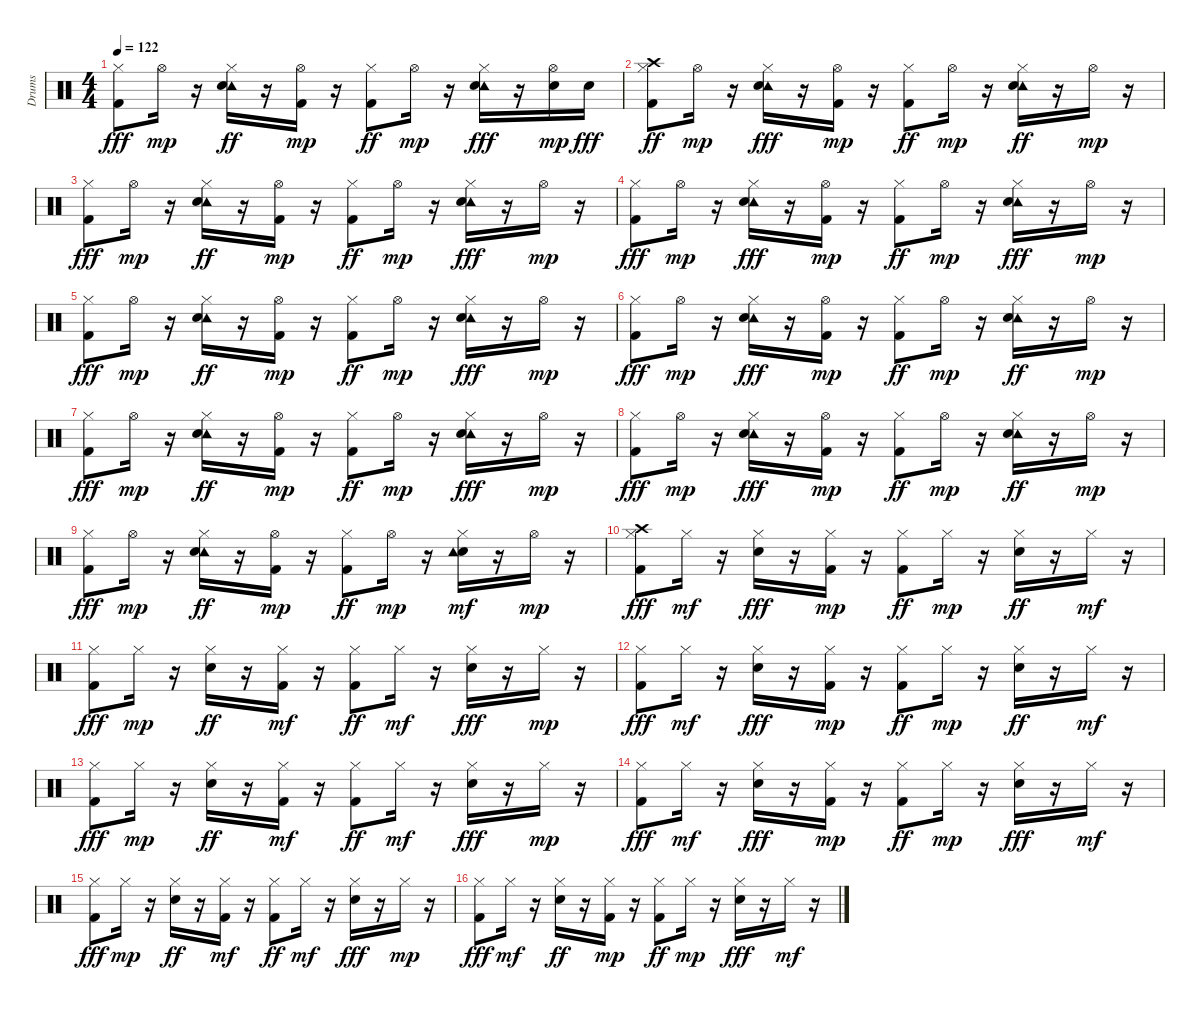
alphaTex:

\track ("Drums" "Drums") {instrument percussion}
\staff {score}
\articulation defaults
\ts (4 4)
\tempo 122
\clef neutral
\ks c
("Kick (hit) 2" "Hi-Hat (closed)").8{dy fff} "Hi-Hat (open)".16{dy mp} r.16 ("Tambourine (hit)" "Snare (hit) 2" "Hi-Hat (closed)").16{dy ff} r.16 ("Kick (hit) 2" "Hi-Hat (open)").16{dy mp} r.16 ("Kick (hit) 2" "Hi-Hat (closed)").8{dy ff} "Hi-Hat (open)".16{dy mp} r.16 ("Tambourine (hit)" "Snare (hit) 2" "Hi-Hat (closed)").16{dy fff} r.16 ("Snare (hit) 2" "Hi-Hat (open)").16{dy mp} "Snare (hit) 2".16{dy fff} |
("Hi-Hat (closed)" "Kick (hit) 2" "Crash high (hit)").8{dy ff} "Hi-Hat (open)".16{dy mp} r.16 ("Tambourine (hit)" "Hi-Hat (closed)" "Snare (hit) 2").16{dy fff} r.16 ("Kick (hit) 2" "Hi-Hat (open)").16{dy mp} r.16 ("Kick (hit) 2" "Hi-Hat (closed)").8{dy ff} "Hi-Hat (open)".16{dy mp} r.16 ("Tambourine (hit)" "Snare (hit) 2" "Hi-Hat (closed)").16{dy ff} r.16 "Hi-Hat (open)".16{dy mp} r.16 |
("Kick (hit) 2" "Hi-Hat (closed)").8{dy fff} "Hi-Hat (open)".16{dy mp} r.16 ("Tambourine (hit)" "Snare (hit) 2" "Hi-Hat (closed)").16{dy ff} r.16 ("Kick (hit) 2" "Hi-Hat (open)").16{dy mp} r.16 ("Kick (hit) 2" "Hi-Hat (closed)").8{dy ff} "Hi-Hat (open)".16{dy mp} r.16 ("Tambourine (hit)" "Snare (hit) 2" "Hi-Hat (closed)").16{dy fff} r.16 "Hi-Hat (open)".16{dy mp} r.16 |
("Kick (hit) 2" "Hi-Hat (closed)").8{dy fff} "Hi-Hat (open)".16{dy mp} r.16 ("Tambourine (hit)" "Hi-Hat (closed)" "Snare (hit) 2").16{dy fff} r.16 ("Kick (hit) 2" "Hi-Hat (open)").16{dy mp} r.16 ("Kick (hit) 2" "Hi-Hat (closed)").8{dy ff} "Hi-Hat (open)".16{dy mp} r.16 ("Tambourine (hit)" "Hi-Hat (closed)" "Snare (hit) 2").16{dy fff} r.16 "Hi-Hat (open)".16{dy mp} r.16 |
("Kick (hit) 2" "Hi-Hat (closed)").8{dy fff} "Hi-Hat (open)".16{dy mp} r.16 ("Tambourine (hit)" "Snare (hit) 2" "Hi-Hat (closed)").16{dy ff} r.16 ("Kick (hit) 2" "Hi-Hat (open)").16{dy mp} r.16 ("Kick (hit) 2" "Hi-Hat (closed)").8{dy ff} "Hi-Hat (open)".16{dy mp} r.16 ("Tambourine (hit)" "Snare (hit) 2" "Hi-Hat (closed)").16{dy fff} r.16 "Hi-Hat (open)".16{dy mp} r.16 |
("Kick (hit) 2" "Hi-Hat (closed)").8{dy fff} "Hi-Hat (open)".16{dy mp} r.16 ("Tambourine (hit)" "Hi-Hat (closed)" "Snare (hit) 2").16{dy fff} r.16 ("Kick (hit) 2" "Hi-Hat (open)").16{dy mp} r.16 ("Kick (hit) 2" "Hi-Hat (closed)").8{dy ff} "Hi-Hat (open)".16{dy mp} r.16 ("Tambourine (hit)" "Snare (hit) 2" "Hi-Hat (closed)").16{dy ff} r.16 "Hi-Hat (open)".16{dy mp} r.16 |
("Kick (hit) 2" "Hi-Hat (closed)").8{dy fff} "Hi-Hat (open)".16{dy mp} r.16 ("Tambourine (hit)" "Snare (hit) 2" "Hi-Hat (closed)").16{dy ff} r.16 ("Kick (hit) 2" "Hi-Hat (open)").16{dy mp} r.16 ("Kick (hit) 2" "Hi-Hat (closed)").8{dy ff} "Hi-Hat (open)".16{dy mp} r.16 ("Tambourine (hit)" "Snare (hit) 2" "Hi-Hat (closed)").16{dy fff} r.16 "Hi-Hat (open)".16{dy mp} r.16 |
("Hi-Hat (closed)" "Kick (hit) 2").8{dy fff} "Hi-Hat (open)".16{dy mp} r.16 ("Tambourine (hit)" "Hi-Hat (closed)" "Snare (hit) 2").16{dy fff} r.16 ("Kick (hit) 2" "Hi-Hat (open)").16{dy mp} r.16 ("Kick (hit) 2" "Hi-Hat (closed)").8{dy ff} "Hi-Hat (open)".16{dy mp} r.16 ("Tambourine (hit)" "Snare (hit) 2" "Hi-Hat (closed)").16{dy ff} r.16 "Hi-Hat (open)".16{dy mp} r.16 |
("Kick (hit) 2" "Hi-Hat (closed)").8{dy fff} "Hi-Hat (open)".16{dy mp} r.16 ("Tambourine (hit)" "Snare (hit) 2" "Hi-Hat (closed)").16{dy ff} r.16 ("Kick (hit) 2" "Hi-Hat (open)").16{dy mp} r.16 ("Kick (hit) 2" "Hi-Hat (closed)").8{dy ff} "Hi-Hat (open)".16{dy mp} r.16 ("Hi-Hat (closed)" "Snare (hit) 2" "Tambourine (hit)").16{dy mf} r.16 "Hi-Hat (open)".16{dy mp} r.16 |
("Crash high (hit)" "Hi-Hat (closed)" "Kick (hit) 2").8{dy fff} "Hi-Hat (closed)".16{dy mf} r.16 ("Hi-Hat (closed)" "Snare (hit) 2").16{dy fff} r.16 ("Kick (hit) 2" "Hi-Hat (closed)").16{dy mp} r.16 ("Kick (hit) 2" "Hi-Hat (closed)").8{dy ff} "Hi-Hat (closed)".16{dy mp} r.16 ("Snare (hit) 2" "Hi-Hat (closed)").16{dy ff} r.16 "Hi-Hat (closed)".16{dy mf} r.16 |
("Kick (hit) 2" "Hi-Hat (closed)").8{dy fff} "Hi-Hat (closed)".16{dy mp} r.16 ("Snare (hit) 2" "Hi-Hat (closed)").16{dy ff} r.16 ("Kick (hit) 2" "Hi-Hat (closed)").16{dy mf} r.16 ("Kick (hit) 2" "Hi-Hat (closed)").8{dy ff} "Hi-Hat (closed)".16{dy mf} r.16 ("Snare (hit) 2" "Hi-Hat (closed)").16{dy fff} r.16 "Hi-Hat (closed)".16{dy mp} r.16 |
("Kick (hit) 2" "Hi-Hat (closed)").8{dy fff} "Hi-Hat (closed)".16{dy mf} r.16 ("Hi-Hat (closed)" "Snare (hit) 2").16{dy fff} r.16 ("Kick (hit) 2" "Hi-Hat (closed)").16{dy mp} r.16 ("Kick (hit) 2" "Hi-Hat (closed)").8{dy ff} "Hi-Hat (closed)".16{dy mp} r.16 ("Snare (hit) 2" "Hi-Hat (closed)").16{dy ff} r.16 "Hi-Hat (closed)".16{dy mf} r.16 |
("Kick (hit) 2" "Hi-Hat (closed)").8{dy fff} "Hi-Hat (closed)".16{dy mp} r.16 ("Snare (hit) 2" "Hi-Hat (closed)").16{dy ff} r.16 ("Kick (hit) 2" "Hi-Hat (closed)").16{dy mf} r.16 ("Kick (hit) 2" "Hi-Hat (closed)").8{dy ff} "Hi-Hat (closed)".16{dy mf} r.16 ("Snare (hit) 2" "Hi-Hat (closed)").16{dy fff} r.16 "Hi-Hat (closed)".16{dy mp} r.16 |
("Hi-Hat (closed)" "Kick (hit) 2").8{dy fff} "Hi-Hat (closed)".16{dy mf} r.16 ("Hi-Hat (closed)" "Snare (hit) 2").16{dy fff} r.16 ("Kick (hit) 2" "Hi-Hat (closed)").16{dy mp} r.16 ("Kick (hit) 2" "Hi-Hat (closed)").8{dy ff} "Hi-Hat (closed)".16{dy mp} r.16 ("Hi-Hat (closed)" "Snare (hit) 2").16{dy fff} r.16 "Hi-Hat (closed)".16{dy mf} r.16 |
("Kick (hit) 2" "Hi-Hat (closed)").8{dy fff} "Hi-Hat (closed)".16{dy mp} r.16 ("Snare (hit) 2" "Hi-Hat (closed)").16{dy ff} r.16 ("Kick (hit) 2" "Hi-Hat (closed)").16{dy mf} r.16 ("Kick (hit) 2" "Hi-Hat (closed)").8{dy ff} "Hi-Hat (closed)".16{dy mf} r.16 ("Snare (hit) 2" "Hi-Hat (closed)").16{dy fff} r.16 "Hi-Hat (closed)".16{dy mp} r.16 |
("Kick (hit) 2" "Hi-Hat (closed)").8{dy fff} "Hi-Hat (closed)".16{dy mf} r.16 ("Snare (hit) 2" "Hi-Hat (closed)").16{dy ff} r.16 ("Kick (hit) 2" "Hi-Hat (closed)").16{dy mp} r.16 ("Kick (hit) 2" "Hi-Hat (closed)").8{dy ff} "Hi-Hat (closed)".16{dy mp} r.16 ("Hi-Hat (closed)" "Snare (hit) 2").16{dy fff} r.16 "Hi-Hat (closed)".16{dy mf} r.16
